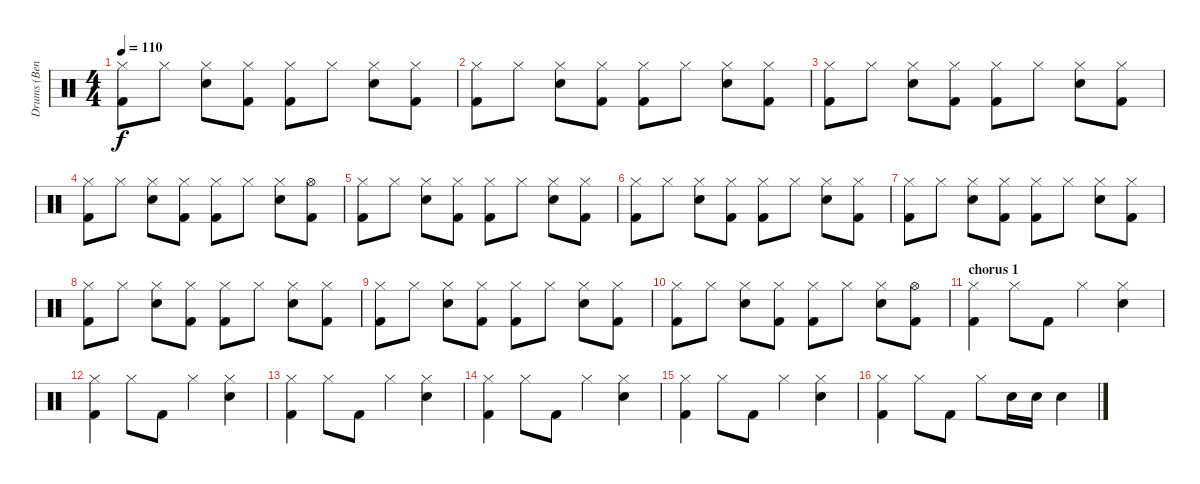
\track ("Drums (Bengerg)" "Drums (Ben") {instrument percussion}
\staff {score}
\articulation defaults
\ts (4 4)
\tempo 110
\clef neutral
\ks c
("Hi-Hat (closed)" "Kick (hit) 2").8{dy f} "Hi-Hat (closed)".8 ("Hi-Hat (closed)" "Electric Snare (hit)").8 ("Hi-Hat (closed)" "Kick (hit) 2").8 ("Hi-Hat (closed)" "Kick (hit) 2").8 "Hi-Hat (closed)".8 ("Hi-Hat (closed)" "Electric Snare (hit)").8 ("Hi-Hat (closed)" "Kick (hit) 2").8 |
("Hi-Hat (closed)" "Kick (hit) 2").8 "Hi-Hat (closed)".8 ("Hi-Hat (closed)" "Electric Snare (hit)").8 ("Hi-Hat (closed)" "Kick (hit) 2").8 ("Hi-Hat (closed)" "Kick (hit) 2").8 "Hi-Hat (closed)".8 ("Hi-Hat (closed)" "Electric Snare (hit)").8 ("Hi-Hat (closed)" "Kick (hit) 2").8 |
("Hi-Hat (closed)" "Kick (hit) 2").8 "Hi-Hat (closed)".8 ("Hi-Hat (closed)" "Electric Snare (hit)").8 ("Hi-Hat (closed)" "Kick (hit) 2").8 ("Hi-Hat (closed)" "Kick (hit) 2").8 "Hi-Hat (closed)".8 ("Hi-Hat (closed)" "Electric Snare (hit)").8 ("Hi-Hat (closed)" "Kick (hit) 2").8 |
("Hi-Hat (closed)" "Kick (hit) 2").8 "Hi-Hat (closed)".8 ("Hi-Hat (closed)" "Electric Snare (hit)").8 ("Hi-Hat (closed)" "Kick (hit) 2").8 ("Hi-Hat (closed)" "Kick (hit) 2").8 "Hi-Hat (closed)".8 ("Hi-Hat (closed)" "Electric Snare (hit)").8 ("Hi-Hat (open)" "Kick (hit) 2").8 |
("Hi-Hat (closed)" "Kick (hit) 2").8 "Hi-Hat (closed)".8 ("Hi-Hat (closed)" "Electric Snare (hit)").8 ("Hi-Hat (closed)" "Kick (hit) 2").8 ("Hi-Hat (closed)" "Kick (hit) 2").8 "Hi-Hat (closed)".8 ("Hi-Hat (closed)" "Electric Snare (hit)").8 ("Hi-Hat (closed)" "Kick (hit) 2").8 |
("Hi-Hat (closed)" "Kick (hit) 2").8 "Hi-Hat (closed)".8 ("Hi-Hat (closed)" "Electric Snare (hit)").8 ("Hi-Hat (closed)" "Kick (hit) 2").8 ("Hi-Hat (closed)" "Kick (hit) 2").8 "Hi-Hat (closed)".8 ("Hi-Hat (closed)" "Electric Snare (hit)").8 ("Hi-Hat (closed)" "Kick (hit) 2").8 |
("Hi-Hat (closed)" "Kick (hit) 2").8 "Hi-Hat (closed)".8 ("Hi-Hat (closed)" "Electric Snare (hit)").8 ("Hi-Hat (closed)" "Kick (hit) 2").8 ("Hi-Hat (closed)" "Kick (hit) 2").8 "Hi-Hat (closed)".8 ("Hi-Hat (closed)" "Electric Snare (hit)").8 ("Hi-Hat (closed)" "Kick (hit) 2").8 |
("Hi-Hat (closed)" "Kick (hit) 2").8 "Hi-Hat (closed)".8 ("Hi-Hat (closed)" "Electric Snare (hit)").8 ("Hi-Hat (closed)" "Kick (hit) 2").8 ("Hi-Hat (closed)" "Kick (hit) 2").8 "Hi-Hat (closed)".8 ("Hi-Hat (closed)" "Electric Snare (hit)").8 ("Hi-Hat (closed)" "Kick (hit) 2").8 |
("Hi-Hat (closed)" "Kick (hit) 2").8 "Hi-Hat (closed)".8 ("Hi-Hat (closed)" "Electric Snare (hit)").8 ("Hi-Hat (closed)" "Kick (hit) 2").8 ("Hi-Hat (closed)" "Kick (hit) 2").8 "Hi-Hat (closed)".8 ("Hi-Hat (closed)" "Electric Snare (hit)").8 ("Hi-Hat (closed)" "Kick (hit) 2").8 |
("Hi-Hat (closed)" "Kick (hit) 2").8 "Hi-Hat (closed)".8 ("Hi-Hat (closed)" "Electric Snare (hit)").8 ("Hi-Hat (closed)" "Kick (hit) 2").8 ("Hi-Hat (closed)" "Kick (hit) 2").8 "Hi-Hat (closed)".8 ("Hi-Hat (closed)" "Electric Snare (hit)").8 ("Hi-Hat (open)" "Kick (hit) 2").8 |
\section ("" "chorus 1")
("Hi-Hat (closed)" "Kick (hit) 2").4 "Hi-Hat (closed)".8 "Kick (hit) 2".8 "Hi-Hat (closed)".4 ("Hi-Hat (closed)" "Electric Snare (hit)").4 |
("Hi-Hat (closed)" "Kick (hit) 2").4 "Hi-Hat (closed)".8 "Kick (hit) 2".8 "Hi-Hat (closed)".4 ("Hi-Hat (closed)" "Electric Snare (hit)").4 |
("Hi-Hat (closed)" "Kick (hit) 2").4 "Hi-Hat (closed)".8 "Kick (hit) 2".8 "Hi-Hat (closed)".4 ("Hi-Hat (closed)" "Electric Snare (hit)").4 |
("Hi-Hat (closed)" "Kick (hit) 2").4 "Hi-Hat (closed)".8 "Kick (hit) 2".8 "Hi-Hat (closed)".4 ("Hi-Hat (closed)" "Electric Snare (hit)").4 |
("Hi-Hat (closed)" "Kick (hit) 2").4 "Hi-Hat (closed)".8 "Kick (hit) 2".8 "Hi-Hat (closed)".4 ("Hi-Hat (closed)" "Electric Snare (hit)").4 |
("Hi-Hat (closed)" "Kick (hit) 2").4 "Hi-Hat (closed)".8 "Kick (hit) 2".8 "Hi-Hat (closed)".8 "Electric Snare (hit)".16 "Electric Snare (hit)".16 "Electric Snare (hit)".4
